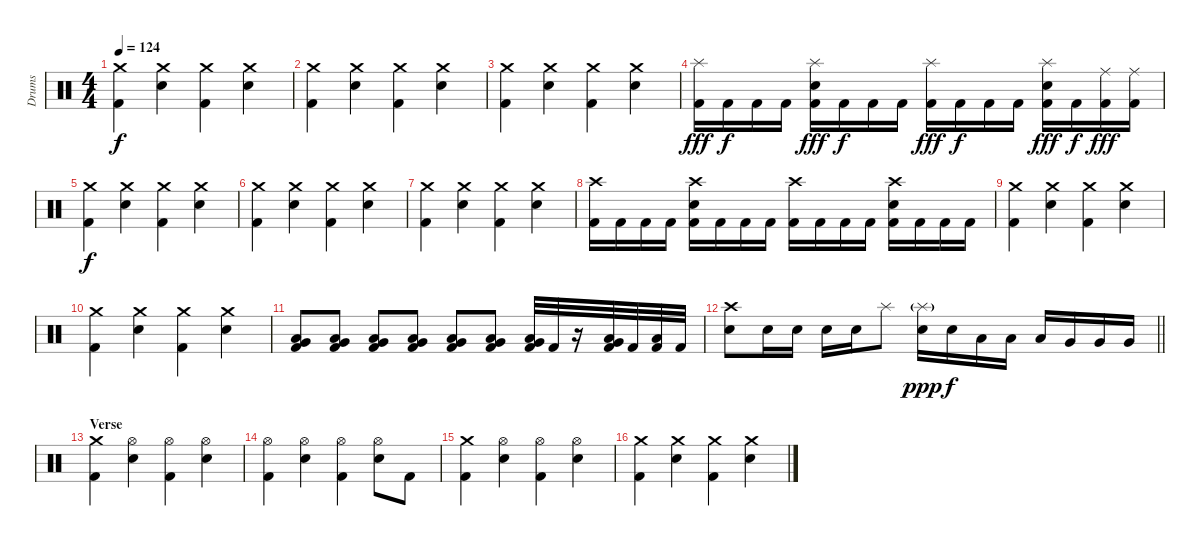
\track ("Drums" "Drums") {instrument percussion}
\staff {score}
\articulation defaults
\ts (4 4)
\tempo 124
\clef neutral
\ks c
("Crash medium (hit)" "Kick (hit) 2").4{dy f} ("Crash medium (hit)" "Electric Snare (hit)").4 ("Crash medium (hit)" "Kick (hit) 2").4 ("Crash medium (hit)" "Electric Snare (hit)").4 |
("Crash medium (hit)" "Kick (hit) 2").4 ("Crash medium (hit)" "Electric Snare (hit)").4 ("Crash medium (hit)" "Kick (hit) 2").4 ("Crash medium (hit)" "Electric Snare (hit)").4 |
("Crash medium (hit)" "Kick (hit) 2").4 ("Crash medium (hit)" "Electric Snare (hit)").4 ("Crash medium (hit)" "Kick (hit) 2").4 ("Crash medium (hit)" "Electric Snare (hit)").4 |
("Splash (hit)" "Kick (hit) 2").16{dy fff} "Kick (hit) 2".16{dy f} "Kick (hit) 2".16 "Kick (hit) 2".16 ("Splash (hit)" "Electric Snare (hit)" "Kick (hit) 2").16{dy fff} "Kick (hit) 2".16{dy f} "Kick (hit) 2".16 "Kick (hit) 2".16 ("Splash (hit)" "Kick (hit) 2").16{dy fff} "Kick (hit) 2".16{dy f} "Kick (hit) 2".16 "Kick (hit) 2".16 ("Splash (hit)" "Electric Snare (hit)" "Kick (hit) 2").16{dy fff} "Kick (hit) 2".16{dy f} ("Ride (middle)" "Kick (hit) 2").16{dy fff} ("Ride (middle)" "Kick (hit) 2").16 |
("Crash medium (hit)" "Kick (hit) 2").4{dy f} ("Crash medium (hit)" "Electric Snare (hit)").4 ("Crash medium (hit)" "Kick (hit) 2").4 ("Crash medium (hit)" "Electric Snare (hit)").4 |
("Crash medium (hit)" "Kick (hit) 2").4 ("Crash medium (hit)" "Electric Snare (hit)").4 ("Crash medium (hit)" "Kick (hit) 2").4 ("Crash medium (hit)" "Electric Snare (hit)").4 |
("Crash medium (hit)" "Kick (hit) 2").4 ("Crash medium (hit)" "Electric Snare (hit)").4 ("Crash medium (hit)" "Kick (hit) 2").4 ("Crash medium (hit)" "Electric Snare (hit)").4 |
("Crash high (hit)" "Kick (hit) 2").16 "Kick (hit) 2".16 "Kick (hit) 2".16 "Kick (hit) 2".16 ("Crash high (hit)" "Electric Snare (hit)" "Kick (hit) 2").16 "Kick (hit) 2".16 "Kick (hit) 2".16 "Kick (hit) 2".16 ("Crash high (hit)" "Kick (hit) 2").16 "Kick (hit) 2".16 "Kick (hit) 2".16 "Kick (hit) 2".16 ("Crash high (hit)" "Electric Snare (hit)" "Kick (hit) 2").16 "Kick (hit) 2".16 "Kick (hit) 2".16 "Kick (hit) 2".16 |
("Crash medium (hit)" "Kick (hit) 2").4 ("Crash medium (hit)" "Electric Snare (hit)").4 ("Crash medium (hit)" "Kick (hit) 2").4 ("Crash medium (hit)" "Electric Snare (hit)").4 |
("Crash medium (hit)" "Kick (hit) 2").4 ("Crash medium (hit)" "Electric Snare (hit)").4 ("Crash medium (hit)" "Kick (hit) 2").4 ("Crash medium (hit)" "Electric Snare (hit)").4 |
("Low Tom (hit)" "Very Low Tom (hit)" "Kick (hit) 2").8 ("Low Tom (hit)" "Very Low Tom (hit)" "Kick (hit) 2").8 ("Low Tom (hit)" "Very Low Tom (hit)" "Kick (hit) 2").8 ("Low Tom (hit)" "Very Low Tom (hit)" "Kick (hit) 2").8 ("Low Tom (hit)" "Very Low Tom (hit)" "Kick (hit) 2").8 ("Low Tom (hit)" "Very Low Tom (hit)" "Kick (hit) 2").8 ("Low Tom (hit)" "Very Low Tom (hit)" "Kick (hit) 2").32 "Kick (hit) 2".32 r.16 ("Low Tom (hit)" "Very Low Tom (hit)" "Kick (hit) 2").32 "Kick (hit) 2".32 ("Low Tom (hit)" "Kick (hit) 2").32 "Kick (hit) 2".32 |
\barLineRight lightlight
("Crash high (hit)" "Electric Snare (hit)").8 "Electric Snare (hit)".16 "Electric Snare (hit)".16 "Electric Snare (hit)".16 "Electric Snare (hit)".16 "Splash (hit)".8 ("Splash (hit)"{g} "Electric Snare (hit)").16{dy ppp} "Electric Snare (hit)".16{dy f} "Low Tom (hit)".16 "Low Tom (hit)".16 "Low Tom (hit)".16 "Very Low Tom (hit)".16 "Very Low Tom (hit)".16 "Very Low Tom (hit)".16 |
\section ("" "Verse")
("Crash medium (hit)" "Kick (hit) 2").4 ("Hi-Hat (open)" "Electric Snare (hit)").4 ("Hi-Hat (open)" "Kick (hit) 2").4 ("Hi-Hat (open)" "Electric Snare (hit)").4 |
("Hi-Hat (open)" "Kick (hit) 2").4 ("Hi-Hat (open)" "Electric Snare (hit)").4 ("Hi-Hat (open)" "Kick (hit) 2").4 ("Hi-Hat (open)" "Electric Snare (hit)").8 "Kick (hit) 2".8 |
("Crash medium (hit)" "Kick (hit) 2").4 ("Hi-Hat (open)" "Electric Snare (hit)").4 ("Hi-Hat (open)" "Kick (hit) 2").4 ("Hi-Hat (open)" "Electric Snare (hit)").4 |
("Crash medium (hit)" "Kick (hit) 2").4 ("Crash medium (hit)" "Electric Snare (hit)").4 ("Crash medium (hit)" "Kick (hit) 2").4 ("Crash medium (hit)" "Electric Snare (hit)").4
